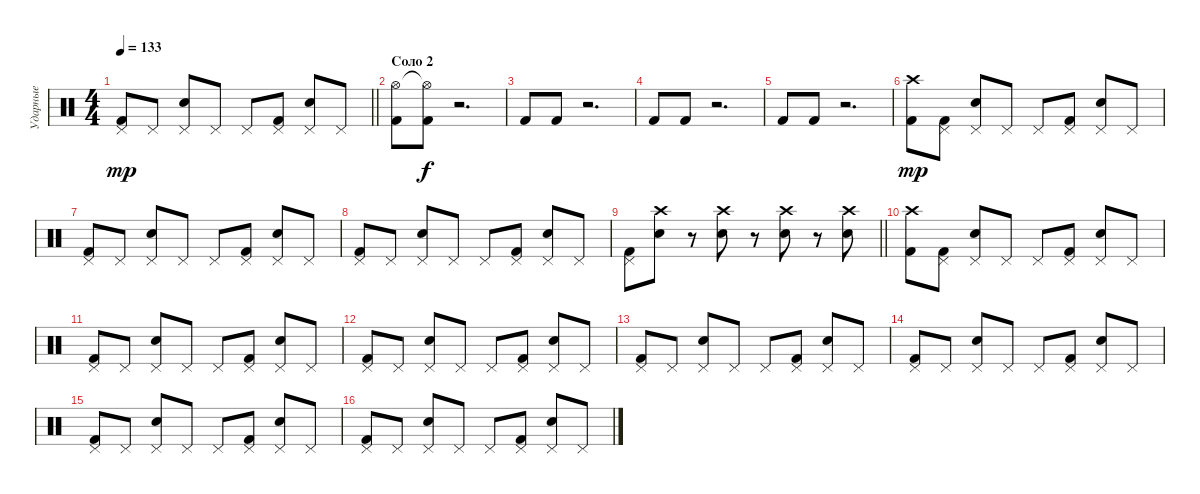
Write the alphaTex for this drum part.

\track ("Ударные" "Ударные") {instrument percussion}
\staff {score}
\articulation defaults
\ts (4 4)
\tempo 133
\clef neutral
\barLineRight lightlight
\ks c
("Kick (hit) 2" "Pedal Hi-Hat (hit)").8{dy mp} "Pedal Hi-Hat (hit)".8 ("Electric Snare (hit)" "Pedal Hi-Hat (hit)").8 "Pedal Hi-Hat (hit)".8 "Pedal Hi-Hat (hit)".8 ("Kick (hit) 2" "Pedal Hi-Hat (hit)").8 ("Electric Snare (hit)" "Pedal Hi-Hat (hit)").8 "Pedal Hi-Hat (hit)".8 |
\section ("" "Соло 2")
("Hi-Hat (open)" "Kick (hit) 2").8 ("Hi-Hat (open)"{t} "Kick (hit) 2").8{dy f} r.2{d} |
"Kick (hit) 2".8 "Kick (hit) 2".8 r.2{d} |
"Kick (hit) 2".8 "Kick (hit) 2".8 r.2{d} |
"Kick (hit) 2".8 "Kick (hit) 2".8 r.2{d} |
("Kick (hit) 2" "Crash high (hit)").8{dy mp} ("Kick (hit) 2" "Pedal Hi-Hat (hit)").8 ("Electric Snare (hit)" "Pedal Hi-Hat (hit)").8 "Pedal Hi-Hat (hit)".8 "Pedal Hi-Hat (hit)".8 ("Kick (hit) 2" "Pedal Hi-Hat (hit)").8 ("Electric Snare (hit)" "Pedal Hi-Hat (hit)").8 "Pedal Hi-Hat (hit)".8 |
("Kick (hit) 2" "Pedal Hi-Hat (hit)").8 "Pedal Hi-Hat (hit)".8 ("Electric Snare (hit)" "Pedal Hi-Hat (hit)").8 "Pedal Hi-Hat (hit)".8 "Pedal Hi-Hat (hit)".8 ("Kick (hit) 2" "Pedal Hi-Hat (hit)").8 ("Electric Snare (hit)" "Pedal Hi-Hat (hit)").8 "Pedal Hi-Hat (hit)".8 |
("Kick (hit) 2" "Pedal Hi-Hat (hit)").8 "Pedal Hi-Hat (hit)".8 ("Electric Snare (hit)" "Pedal Hi-Hat (hit)").8 "Pedal Hi-Hat (hit)".8 "Pedal Hi-Hat (hit)".8 ("Kick (hit) 2" "Pedal Hi-Hat (hit)").8 ("Electric Snare (hit)" "Pedal Hi-Hat (hit)").8 "Pedal Hi-Hat (hit)".8 |
\barLineRight lightlight
("Kick (hit) 2" "Pedal Hi-Hat (hit)").8 ("Electric Snare (hit)" "Crash high (hit)").8 r.8 ("Electric Snare (hit)" "Crash high (hit)").8 r.8 ("Electric Snare (hit)" "Crash high (hit)").8 r.8 ("Electric Snare (hit)" "Crash high (hit)").8 |
("Kick (hit) 2" "Crash high (hit)").8 ("Kick (hit) 2" "Pedal Hi-Hat (hit)").8 ("Electric Snare (hit)" "Pedal Hi-Hat (hit)").8 "Pedal Hi-Hat (hit)".8 "Pedal Hi-Hat (hit)".8 ("Kick (hit) 2" "Pedal Hi-Hat (hit)").8 ("Electric Snare (hit)" "Pedal Hi-Hat (hit)").8 "Pedal Hi-Hat (hit)".8 |
("Kick (hit) 2" "Pedal Hi-Hat (hit)").8 "Pedal Hi-Hat (hit)".8 ("Electric Snare (hit)" "Pedal Hi-Hat (hit)").8 "Pedal Hi-Hat (hit)".8 "Pedal Hi-Hat (hit)".8 ("Kick (hit) 2" "Pedal Hi-Hat (hit)").8 ("Electric Snare (hit)" "Pedal Hi-Hat (hit)").8 "Pedal Hi-Hat (hit)".8 |
("Kick (hit) 2" "Pedal Hi-Hat (hit)").8 "Pedal Hi-Hat (hit)".8 ("Electric Snare (hit)" "Pedal Hi-Hat (hit)").8 "Pedal Hi-Hat (hit)".8 "Pedal Hi-Hat (hit)".8 ("Kick (hit) 2" "Pedal Hi-Hat (hit)").8 ("Electric Snare (hit)" "Pedal Hi-Hat (hit)").8 "Pedal Hi-Hat (hit)".8 |
("Kick (hit) 2" "Pedal Hi-Hat (hit)").8 "Pedal Hi-Hat (hit)".8 ("Electric Snare (hit)" "Pedal Hi-Hat (hit)").8 "Pedal Hi-Hat (hit)".8 "Pedal Hi-Hat (hit)".8 ("Kick (hit) 2" "Pedal Hi-Hat (hit)").8 ("Electric Snare (hit)" "Pedal Hi-Hat (hit)").8 "Pedal Hi-Hat (hit)".8 |
("Kick (hit) 2" "Pedal Hi-Hat (hit)").8 "Pedal Hi-Hat (hit)".8 ("Electric Snare (hit)" "Pedal Hi-Hat (hit)").8 "Pedal Hi-Hat (hit)".8 "Pedal Hi-Hat (hit)".8 ("Kick (hit) 2" "Pedal Hi-Hat (hit)").8 ("Electric Snare (hit)" "Pedal Hi-Hat (hit)").8 "Pedal Hi-Hat (hit)".8 |
("Kick (hit) 2" "Pedal Hi-Hat (hit)").8 "Pedal Hi-Hat (hit)".8 ("Electric Snare (hit)" "Pedal Hi-Hat (hit)").8 "Pedal Hi-Hat (hit)".8 "Pedal Hi-Hat (hit)".8 ("Kick (hit) 2" "Pedal Hi-Hat (hit)").8 ("Electric Snare (hit)" "Pedal Hi-Hat (hit)").8 "Pedal Hi-Hat (hit)".8 |
("Kick (hit) 2" "Pedal Hi-Hat (hit)").8 "Pedal Hi-Hat (hit)".8 ("Electric Snare (hit)" "Pedal Hi-Hat (hit)").8 "Pedal Hi-Hat (hit)".8 "Pedal Hi-Hat (hit)".8 ("Kick (hit) 2" "Pedal Hi-Hat (hit)").8 ("Electric Snare (hit)" "Pedal Hi-Hat (hit)").8 "Pedal Hi-Hat (hit)".8
